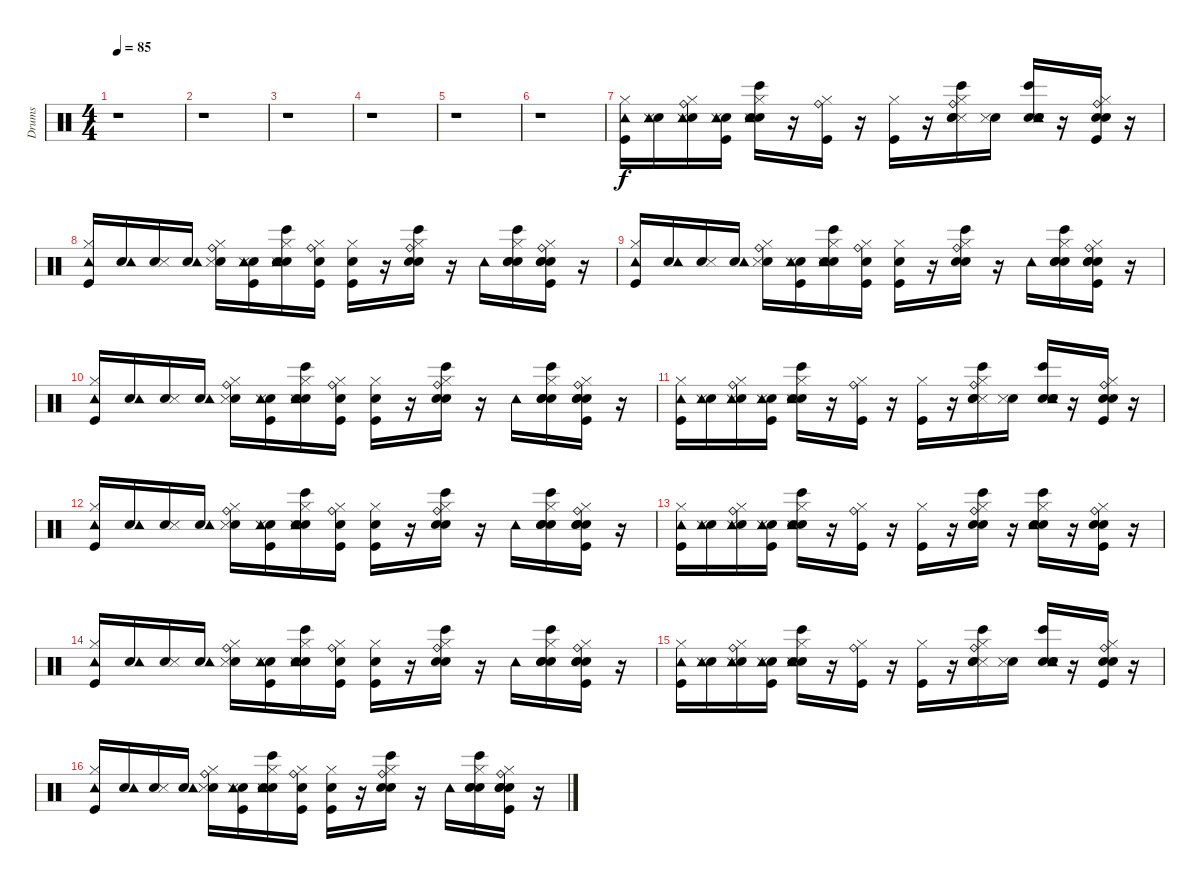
\track ("Drums" "Drums") {instrument percussion}
\staff {score}
\articulation defaults
\ts (4 4)
\tempo 85
\clef neutral
\ks c
r.1{dy f} |
r.1 |
r.1 |
r.1 |
r.1 |
r.1 |
("Kick (hit)" "Hi-Hat (closed)" "Tambourine (hit)").16 ("Snare (hit)" "Metronome (hit)" "Tambourine (hit)").16 ("Snare (hit)" "Metronome (hit)" "Hi-Hat (closed)" "Ride (bell)" "Tambourine (hit)").16 ("Snare (hit)" "Metronome (hit)" "Kick (hit)" "Tambourine (hit)").16 ("Snare (hit)" "Bongo High (hit)" "Metronome (hit)" "Snare (hit) 2" "Hi-Hat (closed)" "Tambourine (hit)").16 r.16 ("Kick (hit)" "Hi-Hat (closed)" "Ride (bell)").16 r.16 ("Kick (hit)" "Hi-Hat (closed)").16 r.16 ("Bongo High (hit)" "Metronome (hit)" "Snare (hit) 2" "Hand Clap (hit)" "Hi-Hat (closed)" "Ride (bell)").16 ("Snare (hit)" "Metronome (hit)").16 ("Snare (hit)" "Bongo High (hit)" "Metronome (hit)" "Snare (hit) 2" "Hand Clap (hit)" "Tambourine (hit)").16 r.16 ("Kick (hit)" "Snare (hit) 2" "Hand Clap (hit)" "Hi-Hat (closed)" "Ride (bell)").16 r.16 |
("Kick (hit)" "Hi-Hat (closed)" "Tambourine (hit)").16 ("Snare (hit)" "Tambourine (hit)").16 ("Snare (hit)" "Metronome (hit)").16 ("Snare (hit)" "Tambourine (hit)").16 ("Snare (hit)" "Metronome (hit)" "Hi-Hat (closed)" "Ride (bell)").16 ("Snare (hit)" "Tambourine (hit)" "Metronome (hit)" "Kick (hit)").16 ("Snare (hit)" "Bongo High (hit)" "Metronome (hit)" "Snare (hit) 2" "Hi-Hat (closed)" "Tambourine (hit)").16 ("Snare (hit)" "Kick (hit)" "Hi-Hat (closed)" "Ride (bell)").16 ("Snare (hit)" "Kick (hit)" "Hi-Hat (closed)").16 r.16 ("Bongo High (hit)" "Snare (hit) 2" "Hand Clap (hit)" "Hi-Hat (closed)" "Ride (bell)").16 r.16 "Tambourine (hit)".16 ("Snare (hit)" "Bongo High (hit)" "Snare (hit) 2" "Hand Clap (hit)" "Hi-Hat (closed)").16 ("Snare (hit)" "Kick (hit)" "Snare (hit) 2" "Hand Clap (hit)" "Hi-Hat (closed)" "Ride (bell)").16 r.16 |
("Kick (hit)" "Hi-Hat (closed)" "Tambourine (hit)").16 ("Snare (hit)" "Tambourine (hit)").16 ("Snare (hit)" "Metronome (hit)").16 ("Snare (hit)" "Tambourine (hit)").16 ("Snare (hit)" "Metronome (hit)" "Hi-Hat (closed)" "Ride (bell)").16 ("Snare (hit)" "Tambourine (hit)" "Metronome (hit)" "Kick (hit)").16 ("Snare (hit)" "Bongo High (hit)" "Metronome (hit)" "Snare (hit) 2" "Hi-Hat (closed)" "Tambourine (hit)").16 ("Snare (hit)" "Kick (hit)" "Hi-Hat (closed)" "Ride (bell)").16 ("Snare (hit)" "Kick (hit)" "Hi-Hat (closed)").16 r.16 ("Bongo High (hit)" "Snare (hit) 2" "Hand Clap (hit)" "Hi-Hat (closed)" "Ride (bell)").16 r.16 "Tambourine (hit)".16 ("Snare (hit)" "Bongo High (hit)" "Snare (hit) 2" "Hand Clap (hit)" "Hi-Hat (closed)").16 ("Snare (hit)" "Kick (hit)" "Snare (hit) 2" "Hand Clap (hit)" "Hi-Hat (closed)" "Ride (bell)").16 r.16 |
("Kick (hit)" "Hi-Hat (closed)" "Tambourine (hit)").16 ("Snare (hit)" "Tambourine (hit)").16 ("Snare (hit)" "Metronome (hit)").16 ("Snare (hit)" "Tambourine (hit)").16 ("Snare (hit)" "Metronome (hit)" "Hi-Hat (closed)" "Ride (bell)").16 ("Snare (hit)" "Tambourine (hit)" "Metronome (hit)" "Kick (hit)").16 ("Snare (hit)" "Bongo High (hit)" "Metronome (hit)" "Snare (hit) 2" "Hi-Hat (closed)" "Tambourine (hit)").16 ("Snare (hit)" "Kick (hit)" "Hi-Hat (closed)" "Ride (bell)").16 ("Snare (hit)" "Kick (hit)" "Hi-Hat (closed)").16 r.16 ("Bongo High (hit)" "Snare (hit) 2" "Hand Clap (hit)" "Hi-Hat (closed)" "Ride (bell)").16 r.16 "Tambourine (hit)".16 ("Snare (hit)" "Bongo High (hit)" "Snare (hit) 2" "Hand Clap (hit)" "Hi-Hat (closed)").16 ("Snare (hit)" "Kick (hit)" "Snare (hit) 2" "Hand Clap (hit)" "Hi-Hat (closed)" "Ride (bell)").16 r.16 |
("Kick (hit)" "Hi-Hat (closed)" "Tambourine (hit)").16 ("Snare (hit)" "Metronome (hit)" "Tambourine (hit)").16 ("Snare (hit)" "Metronome (hit)" "Hi-Hat (closed)" "Ride (bell)" "Tambourine (hit)").16 ("Snare (hit)" "Metronome (hit)" "Kick (hit)" "Tambourine (hit)").16 ("Snare (hit)" "Bongo High (hit)" "Metronome (hit)" "Snare (hit) 2" "Hi-Hat (closed)" "Tambourine (hit)").16 r.16 ("Kick (hit)" "Hi-Hat (closed)" "Ride (bell)").16 r.16 ("Kick (hit)" "Hi-Hat (closed)").16 r.16 ("Bongo High (hit)" "Metronome (hit)" "Snare (hit) 2" "Hand Clap (hit)" "Hi-Hat (closed)" "Ride (bell)").16 ("Snare (hit)" "Metronome (hit)").16 ("Snare (hit)" "Bongo High (hit)" "Metronome (hit)" "Snare (hit) 2" "Hand Clap (hit)" "Tambourine (hit)").16 r.16 ("Kick (hit)" "Snare (hit) 2" "Hand Clap (hit)" "Hi-Hat (closed)" "Ride (bell)").16 r.16 |
("Kick (hit)" "Hi-Hat (closed)" "Tambourine (hit)").16 ("Snare (hit)" "Tambourine (hit)").16 ("Snare (hit)" "Metronome (hit)").16 ("Snare (hit)" "Tambourine (hit)").16 ("Snare (hit)" "Metronome (hit)" "Hi-Hat (closed)" "Ride (bell)").16 ("Snare (hit)" "Tambourine (hit)" "Metronome (hit)" "Kick (hit)").16 ("Snare (hit)" "Bongo High (hit)" "Metronome (hit)" "Snare (hit) 2" "Hi-Hat (closed)" "Tambourine (hit)").16 ("Snare (hit)" "Kick (hit)" "Hi-Hat (closed)" "Ride (bell)").16 ("Snare (hit)" "Kick (hit)" "Hi-Hat (closed)").16 r.16 ("Bongo High (hit)" "Snare (hit) 2" "Hand Clap (hit)" "Hi-Hat (closed)" "Ride (bell)").16 r.16 "Tambourine (hit)".16 ("Snare (hit)" "Bongo High (hit)" "Snare (hit) 2" "Hand Clap (hit)" "Hi-Hat (closed)").16 ("Snare (hit)" "Kick (hit)" "Snare (hit) 2" "Hand Clap (hit)" "Hi-Hat (closed)" "Ride (bell)").16 r.16 |
("Kick (hit)" "Hi-Hat (closed)" "Tambourine (hit)").16 ("Snare (hit)" "Metronome (hit)" "Tambourine (hit)").16 ("Snare (hit)" "Metronome (hit)" "Hi-Hat (closed)" "Ride (bell)" "Tambourine (hit)").16 ("Snare (hit)" "Metronome (hit)" "Kick (hit)" "Tambourine (hit)").16 ("Snare (hit)" "Bongo High (hit)" "Metronome (hit)" "Snare (hit) 2" "Hi-Hat (closed)" "Tambourine (hit)").16 r.16 ("Kick (hit)" "Hi-Hat (closed)" "Ride (bell)").16 r.16 ("Kick (hit)" "Hi-Hat (closed)").16 r.16 ("Bongo High (hit)" "Snare (hit) 2" "Hand Clap (hit)" "Hi-Hat (closed)" "Ride (bell)").16 r.16 ("Bongo High (hit)" "Snare (hit) 2" "Hand Clap (hit)" "Hi-Hat (closed)" "Tambourine (hit)").16 r.16 ("Kick (hit)" "Snare (hit) 2" "Hand Clap (hit)" "Hi-Hat (closed)" "Ride (bell)").16 r.16 |
("Kick (hit)" "Hi-Hat (closed)" "Tambourine (hit)").16 ("Snare (hit)" "Tambourine (hit)").16 ("Snare (hit)" "Metronome (hit)").16 ("Snare (hit)" "Tambourine (hit)").16 ("Snare (hit)" "Metronome (hit)" "Hi-Hat (closed)" "Ride (bell)").16 ("Snare (hit)" "Tambourine (hit)" "Metronome (hit)" "Kick (hit)").16 ("Snare (hit)" "Bongo High (hit)" "Metronome (hit)" "Snare (hit) 2" "Hi-Hat (closed)" "Tambourine (hit)").16 ("Snare (hit)" "Kick (hit)" "Hi-Hat (closed)" "Ride (bell)").16 ("Snare (hit)" "Kick (hit)" "Hi-Hat (closed)").16 r.16 ("Bongo High (hit)" "Snare (hit) 2" "Hand Clap (hit)" "Hi-Hat (closed)" "Ride (bell)").16 r.16 "Tambourine (hit)".16 ("Snare (hit)" "Bongo High (hit)" "Snare (hit) 2" "Hand Clap (hit)" "Hi-Hat (closed)").16 ("Snare (hit)" "Kick (hit)" "Snare (hit) 2" "Hand Clap (hit)" "Hi-Hat (closed)" "Ride (bell)").16 r.16 |
("Kick (hit)" "Hi-Hat (closed)" "Tambourine (hit)").16 ("Snare (hit)" "Metronome (hit)" "Tambourine (hit)").16 ("Snare (hit)" "Metronome (hit)" "Hi-Hat (closed)" "Ride (bell)" "Tambourine (hit)").16 ("Snare (hit)" "Metronome (hit)" "Kick (hit)" "Tambourine (hit)").16 ("Snare (hit)" "Bongo High (hit)" "Metronome (hit)" "Snare (hit) 2" "Hi-Hat (closed)" "Tambourine (hit)").16 r.16 ("Kick (hit)" "Hi-Hat (closed)" "Ride (bell)").16 r.16 ("Kick (hit)" "Hi-Hat (closed)").16 r.16 ("Bongo High (hit)" "Metronome (hit)" "Snare (hit) 2" "Hand Clap (hit)" "Hi-Hat (closed)" "Ride (bell)").16 ("Snare (hit)" "Metronome (hit)").16 ("Snare (hit)" "Bongo High (hit)" "Metronome (hit)" "Snare (hit) 2" "Hand Clap (hit)" "Tambourine (hit)").16 r.16 ("Kick (hit)" "Snare (hit) 2" "Hand Clap (hit)" "Hi-Hat (closed)" "Ride (bell)").16 r.16 |
("Kick (hit)" "Hi-Hat (closed)" "Tambourine (hit)").16 ("Snare (hit)" "Tambourine (hit)").16 ("Snare (hit)" "Metronome (hit)").16 ("Snare (hit)" "Tambourine (hit)").16 ("Snare (hit)" "Metronome (hit)" "Hi-Hat (closed)" "Ride (bell)").16 ("Snare (hit)" "Tambourine (hit)" "Metronome (hit)" "Kick (hit)").16 ("Snare (hit)" "Bongo High (hit)" "Metronome (hit)" "Snare (hit) 2" "Hi-Hat (closed)" "Tambourine (hit)").16 ("Snare (hit)" "Kick (hit)" "Hi-Hat (closed)" "Ride (bell)").16 ("Snare (hit)" "Kick (hit)" "Hi-Hat (closed)").16 r.16 ("Bongo High (hit)" "Snare (hit) 2" "Hand Clap (hit)" "Hi-Hat (closed)" "Ride (bell)").16 r.16 "Tambourine (hit)".16 ("Snare (hit)" "Bongo High (hit)" "Snare (hit) 2" "Hand Clap (hit)" "Hi-Hat (closed)").16 ("Snare (hit)" "Kick (hit)" "Snare (hit) 2" "Hand Clap (hit)" "Hi-Hat (closed)" "Ride (bell)").16 r.16
